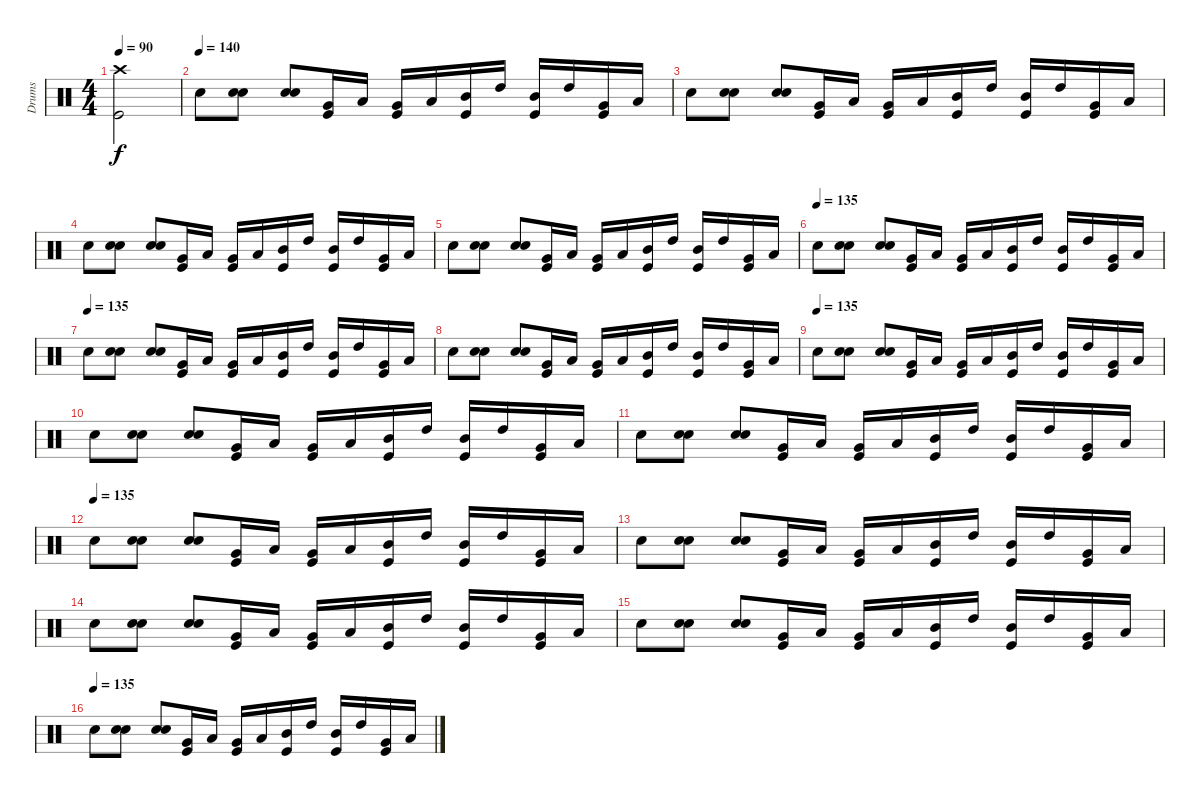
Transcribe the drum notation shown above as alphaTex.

\track ("Drums" "Drums") {instrument percussion}
\staff {score}
\articulation defaults
\ts (4 4)
\tempo 90
\clef neutral
\ks c
("Crash high (hit)" "Kick (hit)").2{dy f} |
\tempo (140)
"Snare (hit) 2".8 ("Snare (hit) 2" "Snare (hit) 2").8 ("Snare (hit) 2" "Snare (hit) 2").8 ("Very Low Tom (hit)" "Kick (hit)").16 "Low Tom (hit)".16 ("Very Low Tom (hit)" "Kick (hit)").16 "Low Tom (hit)".16 ("Mid Tom (hit)" "Kick (hit)").16 "High Tom (hit)".16 ("Mid Tom (hit)" "Kick (hit)").16 "High Tom (hit)".16 ("Very Low Tom (hit)" "Kick (hit)").16 "Low Tom (hit)".16 |
"Snare (hit) 2".8 ("Snare (hit) 2" "Snare (hit) 2").8 ("Snare (hit) 2" "Snare (hit) 2").8 ("Very Low Tom (hit)" "Kick (hit)").16 "Low Tom (hit)".16 ("Very Low Tom (hit)" "Kick (hit)").16 "Low Tom (hit)".16 ("Mid Tom (hit)" "Kick (hit)").16 "High Tom (hit)".16 ("Mid Tom (hit)" "Kick (hit)").16 "High Tom (hit)".16 ("Very Low Tom (hit)" "Kick (hit)").16 "Low Tom (hit)".16 |
"Snare (hit) 2".8 ("Snare (hit) 2" "Snare (hit) 2").8 ("Snare (hit) 2" "Snare (hit) 2").8 ("Very Low Tom (hit)" "Kick (hit)").16 "Low Tom (hit)".16 ("Very Low Tom (hit)" "Kick (hit)").16 "Low Tom (hit)".16 ("Mid Tom (hit)" "Kick (hit)").16 "High Tom (hit)".16 ("Mid Tom (hit)" "Kick (hit)").16 "High Tom (hit)".16 ("Very Low Tom (hit)" "Kick (hit)").16 "Low Tom (hit)".16 |
"Snare (hit) 2".8 ("Snare (hit) 2" "Snare (hit) 2").8 ("Snare (hit) 2" "Snare (hit) 2").8 ("Very Low Tom (hit)" "Kick (hit)").16 "Low Tom (hit)".16 ("Very Low Tom (hit)" "Kick (hit)").16 "Low Tom (hit)".16 ("Mid Tom (hit)" "Kick (hit)").16 "High Tom (hit)".16 ("Mid Tom (hit)" "Kick (hit)").16 "High Tom (hit)".16 ("Very Low Tom (hit)" "Kick (hit)").16 "Low Tom (hit)".16 |
\tempo (135)
"Snare (hit) 2".8 ("Snare (hit) 2" "Snare (hit) 2").8 ("Snare (hit) 2" "Snare (hit) 2").8 ("Very Low Tom (hit)" "Kick (hit)").16 "Low Tom (hit)".16 ("Very Low Tom (hit)" "Kick (hit)").16 "Low Tom (hit)".16 ("Mid Tom (hit)" "Kick (hit)").16 "High Tom (hit)".16 ("Mid Tom (hit)" "Kick (hit)").16 "High Tom (hit)".16 ("Very Low Tom (hit)" "Kick (hit)").16 "Low Tom (hit)".16 |
\tempo (135)
"Snare (hit) 2".8 ("Snare (hit) 2" "Snare (hit) 2").8 ("Snare (hit) 2" "Snare (hit) 2").8 ("Very Low Tom (hit)" "Kick (hit)").16 "Low Tom (hit)".16 ("Very Low Tom (hit)" "Kick (hit)").16 "Low Tom (hit)".16 ("Mid Tom (hit)" "Kick (hit)").16 "High Tom (hit)".16 ("Mid Tom (hit)" "Kick (hit)").16 "High Tom (hit)".16 ("Very Low Tom (hit)" "Kick (hit)").16 "Low Tom (hit)".16 |
"Snare (hit) 2".8 ("Snare (hit) 2" "Snare (hit) 2").8 ("Snare (hit) 2" "Snare (hit) 2").8 ("Very Low Tom (hit)" "Kick (hit)").16 "Low Tom (hit)".16 ("Very Low Tom (hit)" "Kick (hit)").16 "Low Tom (hit)".16 ("Mid Tom (hit)" "Kick (hit)").16 "High Tom (hit)".16 ("Mid Tom (hit)" "Kick (hit)").16 "High Tom (hit)".16 ("Very Low Tom (hit)" "Kick (hit)").16 "Low Tom (hit)".16 |
\tempo (135)
"Snare (hit) 2".8 ("Snare (hit) 2" "Snare (hit) 2").8 ("Snare (hit) 2" "Snare (hit) 2").8 ("Very Low Tom (hit)" "Kick (hit)").16 "Low Tom (hit)".16 ("Very Low Tom (hit)" "Kick (hit)").16 "Low Tom (hit)".16 ("Mid Tom (hit)" "Kick (hit)").16 "High Tom (hit)".16 ("Mid Tom (hit)" "Kick (hit)").16 "High Tom (hit)".16 ("Very Low Tom (hit)" "Kick (hit)").16 "Low Tom (hit)".16 |
"Snare (hit) 2".8 ("Snare (hit) 2" "Snare (hit) 2").8 ("Snare (hit) 2" "Snare (hit) 2").8 ("Very Low Tom (hit)" "Kick (hit)").16 "Low Tom (hit)".16 ("Very Low Tom (hit)" "Kick (hit)").16 "Low Tom (hit)".16 ("Mid Tom (hit)" "Kick (hit)").16 "High Tom (hit)".16 ("Mid Tom (hit)" "Kick (hit)").16 "High Tom (hit)".16 ("Very Low Tom (hit)" "Kick (hit)").16 "Low Tom (hit)".16 |
"Snare (hit) 2".8 ("Snare (hit) 2" "Snare (hit) 2").8 ("Snare (hit) 2" "Snare (hit) 2").8 ("Very Low Tom (hit)" "Kick (hit)").16 "Low Tom (hit)".16 ("Very Low Tom (hit)" "Kick (hit)").16 "Low Tom (hit)".16 ("Mid Tom (hit)" "Kick (hit)").16 "High Tom (hit)".16 ("Mid Tom (hit)" "Kick (hit)").16 "High Tom (hit)".16 ("Very Low Tom (hit)" "Kick (hit)").16 "Low Tom (hit)".16 |
\tempo (135)
"Snare (hit) 2".8 ("Snare (hit) 2" "Snare (hit) 2").8 ("Snare (hit) 2" "Snare (hit) 2").8 ("Very Low Tom (hit)" "Kick (hit)").16 "Low Tom (hit)".16 ("Very Low Tom (hit)" "Kick (hit)").16 "Low Tom (hit)".16 ("Mid Tom (hit)" "Kick (hit)").16 "High Tom (hit)".16 ("Mid Tom (hit)" "Kick (hit)").16 "High Tom (hit)".16 ("Very Low Tom (hit)" "Kick (hit)").16 "Low Tom (hit)".16 |
"Snare (hit) 2".8 ("Snare (hit) 2" "Snare (hit) 2").8 ("Snare (hit) 2" "Snare (hit) 2").8 ("Very Low Tom (hit)" "Kick (hit)").16 "Low Tom (hit)".16 ("Very Low Tom (hit)" "Kick (hit)").16 "Low Tom (hit)".16 ("Mid Tom (hit)" "Kick (hit)").16 "High Tom (hit)".16 ("Mid Tom (hit)" "Kick (hit)").16 "High Tom (hit)".16 ("Very Low Tom (hit)" "Kick (hit)").16 "Low Tom (hit)".16 |
"Snare (hit) 2".8 ("Snare (hit) 2" "Snare (hit) 2").8 ("Snare (hit) 2" "Snare (hit) 2").8 ("Very Low Tom (hit)" "Kick (hit)").16 "Low Tom (hit)".16 ("Very Low Tom (hit)" "Kick (hit)").16 "Low Tom (hit)".16 ("Mid Tom (hit)" "Kick (hit)").16 "High Tom (hit)".16 ("Mid Tom (hit)" "Kick (hit)").16 "High Tom (hit)".16 ("Very Low Tom (hit)" "Kick (hit)").16 "Low Tom (hit)".16 |
"Snare (hit) 2".8 ("Snare (hit) 2" "Snare (hit) 2").8 ("Snare (hit) 2" "Snare (hit) 2").8 ("Very Low Tom (hit)" "Kick (hit)").16 "Low Tom (hit)".16 ("Very Low Tom (hit)" "Kick (hit)").16 "Low Tom (hit)".16 ("Mid Tom (hit)" "Kick (hit)").16 "High Tom (hit)".16 ("Mid Tom (hit)" "Kick (hit)").16 "High Tom (hit)".16 ("Very Low Tom (hit)" "Kick (hit)").16 "Low Tom (hit)".16 |
\tempo (135)
"Snare (hit) 2".8 ("Snare (hit) 2" "Snare (hit) 2").8 ("Snare (hit) 2" "Snare (hit) 2").8 ("Very Low Tom (hit)" "Kick (hit)").16 "Low Tom (hit)".16 ("Very Low Tom (hit)" "Kick (hit)").16 "Low Tom (hit)".16 ("Mid Tom (hit)" "Kick (hit)").16 "High Tom (hit)".16 ("Mid Tom (hit)" "Kick (hit)").16 "High Tom (hit)".16 ("Very Low Tom (hit)" "Kick (hit)").16 "Low Tom (hit)".16
